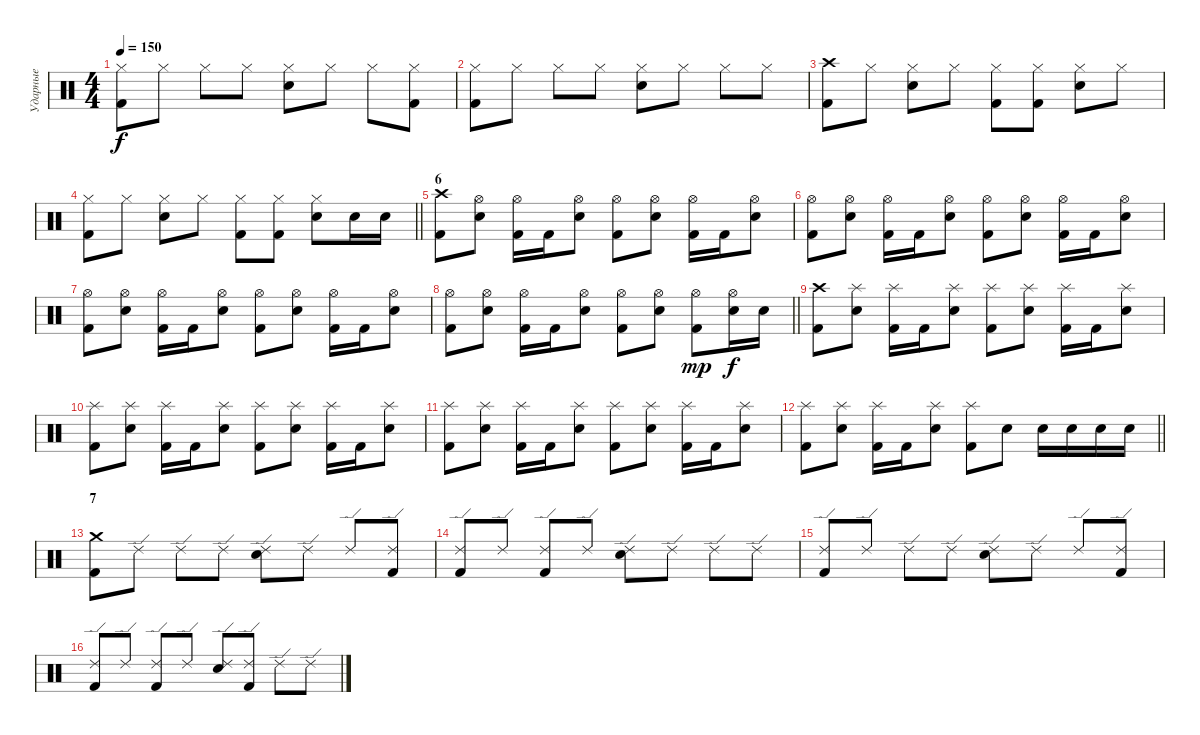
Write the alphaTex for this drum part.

\track ("Ударные" "Ударные") {instrument percussion}
\staff {score}
\articulation defaults
\ts (4 4)
\tempo 150
\clef neutral
\ks c
("Hi-Hat (closed)" "Kick (hit) 2").8{dy f} "Hi-Hat (closed)".8 "Hi-Hat (closed)".8 "Hi-Hat (closed)".8 ("Hi-Hat (closed)" "Electric Snare (hit)").8 "Hi-Hat (closed)".8 "Hi-Hat (closed)".8 ("Hi-Hat (closed)" "Kick (hit) 2").8 |
("Hi-Hat (closed)" "Kick (hit) 2").8 "Hi-Hat (closed)".8 "Hi-Hat (closed)".8 "Hi-Hat (closed)".8 ("Hi-Hat (closed)" "Electric Snare (hit)").8 "Hi-Hat (closed)".8 "Hi-Hat (closed)".8 "Hi-Hat (closed)".8 |
("Crash high (hit)" "Kick (hit) 2").8 "Hi-Hat (closed)".8 ("Hi-Hat (closed)" "Electric Snare (hit)").8 "Hi-Hat (closed)".8 ("Hi-Hat (closed)" "Kick (hit) 2").8 ("Hi-Hat (closed)" "Kick (hit) 2").8 ("Hi-Hat (closed)" "Electric Snare (hit)").8 "Hi-Hat (closed)".8 |
\barLineRight lightlight
("Hi-Hat (closed)" "Kick (hit) 2").8 "Hi-Hat (closed)".8 ("Hi-Hat (closed)" "Electric Snare (hit)").8 "Hi-Hat (closed)".8 ("Hi-Hat (closed)" "Kick (hit) 2").8 ("Hi-Hat (closed)" "Kick (hit) 2").8 ("Hi-Hat (closed)" "Electric Snare (hit)").8 "Electric Snare (hit)".16 "Electric Snare (hit)".16 |
\section ("" "6")
("Crash high (hit)" "Kick (hit) 2").8 ("Hi-Hat (open)" "Electric Snare (hit)").8 ("Hi-Hat (open)" "Kick (hit) 2").16 "Kick (hit) 2".16 ("Hi-Hat (open)" "Electric Snare (hit)").8 ("Hi-Hat (open)" "Kick (hit) 2").8 ("Hi-Hat (open)" "Electric Snare (hit)").8 ("Hi-Hat (open)" "Kick (hit) 2").16 "Kick (hit) 2".16 ("Hi-Hat (open)" "Electric Snare (hit)").8 |
("Hi-Hat (open)" "Kick (hit) 2").8 ("Hi-Hat (open)" "Electric Snare (hit)").8 ("Hi-Hat (open)" "Kick (hit) 2").16 "Kick (hit) 2".16 ("Hi-Hat (open)" "Electric Snare (hit)").8 ("Hi-Hat (open)" "Kick (hit) 2").8 ("Hi-Hat (open)" "Electric Snare (hit)").8 ("Hi-Hat (open)" "Kick (hit) 2").16 "Kick (hit) 2".16 ("Hi-Hat (open)" "Electric Snare (hit)").8 |
("Hi-Hat (open)" "Kick (hit) 2").8 ("Hi-Hat (open)" "Electric Snare (hit)").8 ("Hi-Hat (open)" "Kick (hit) 2").16 "Kick (hit) 2".16 ("Hi-Hat (open)" "Electric Snare (hit)").8 ("Hi-Hat (open)" "Kick (hit) 2").8 ("Hi-Hat (open)" "Electric Snare (hit)").8 ("Hi-Hat (open)" "Kick (hit) 2").16 "Kick (hit) 2".16 ("Hi-Hat (open)" "Electric Snare (hit)").8 |
\barLineRight lightlight
("Hi-Hat (open)" "Kick (hit) 2").8 ("Hi-Hat (open)" "Electric Snare (hit)").8 ("Hi-Hat (open)" "Kick (hit) 2").16 "Kick (hit) 2".16 ("Hi-Hat (open)" "Electric Snare (hit)").8 ("Hi-Hat (open)" "Kick (hit) 2").8 ("Hi-Hat (open)" "Electric Snare (hit)").8 ("Hi-Hat (open)" "Kick (hit) 2").8{dy mp} ("Hi-Hat (open)" "Electric Snare (hit)").16{dy f} "Electric Snare (hit)".16 |
("Crash high (hit)" "Kick (hit) 2").8 ("Splash (hit)" "Electric Snare (hit)").8 ("Splash (hit)" "Kick (hit) 2").16 "Kick (hit) 2".16 ("Splash (hit)" "Electric Snare (hit)").8 ("Splash (hit)" "Kick (hit) 2").8 ("Splash (hit)" "Electric Snare (hit)").8 ("Splash (hit)" "Kick (hit) 2").16 "Kick (hit) 2".16 ("Splash (hit)" "Electric Snare (hit)").8 |
("Splash (hit)" "Kick (hit) 2").8 ("Splash (hit)" "Electric Snare (hit)").8 ("Splash (hit)" "Kick (hit) 2").16 "Kick (hit) 2".16 ("Splash (hit)" "Electric Snare (hit)").8 ("Splash (hit)" "Kick (hit) 2").8 ("Splash (hit)" "Electric Snare (hit)").8 ("Splash (hit)" "Kick (hit) 2").16 "Kick (hit) 2".16 ("Splash (hit)" "Electric Snare (hit)").8 |
("Splash (hit)" "Kick (hit) 2").8 ("Splash (hit)" "Electric Snare (hit)").8 ("Splash (hit)" "Kick (hit) 2").16 "Kick (hit) 2".16 ("Splash (hit)" "Electric Snare (hit)").8 ("Splash (hit)" "Kick (hit) 2").8 ("Splash (hit)" "Electric Snare (hit)").8 ("Splash (hit)" "Kick (hit) 2").16 "Kick (hit) 2".16 ("Splash (hit)" "Electric Snare (hit)").8 |
\barLineRight lightlight
("Splash (hit)" "Kick (hit) 2").8 ("Splash (hit)" "Electric Snare (hit)").8 ("Splash (hit)" "Kick (hit) 2").16 "Kick (hit) 2".16 ("Splash (hit)" "Electric Snare (hit)").8 ("Splash (hit)" "Kick (hit) 2").8 "Electric Snare (hit)".8 "Electric Snare (hit)".16 "Electric Snare (hit)".16 "Electric Snare (hit)".16 "Electric Snare (hit)".16 |
\section ("" "7")
("Crash medium (hit)" "Kick (hit) 2").8 "Ride (edge) 2".8 "Ride (edge) 2".8 "Ride (edge) 2".8 ("Ride (edge) 2" "Electric Snare (hit)").8 "Ride (edge) 2".8 "Ride (edge) 2".8 ("Ride (edge) 2" "Kick (hit) 2").8 |
("Ride (edge) 2" "Kick (hit) 2").8 "Ride (edge) 2".8 ("Ride (edge) 2" "Kick (hit) 2").8 "Ride (edge) 2".8 ("Ride (edge) 2" "Electric Snare (hit)").8 "Ride (edge) 2".8 "Ride (edge) 2".8 "Ride (edge) 2".8 |
("Ride (edge) 2" "Kick (hit) 2").8 "Ride (edge) 2".8 "Ride (edge) 2".8 "Ride (edge) 2".8 ("Ride (edge) 2" "Electric Snare (hit)").8 "Ride (edge) 2".8 "Ride (edge) 2".8 ("Ride (edge) 2" "Kick (hit) 2").8 |
("Ride (edge) 2" "Kick (hit) 2").8 "Ride (edge) 2".8 ("Ride (edge) 2" "Kick (hit) 2").8 "Ride (edge) 2".8 ("Ride (edge) 2" "Electric Snare (hit)").8 ("Ride (edge) 2" "Kick (hit) 2").8 "Ride (edge) 2".8 "Ride (edge) 2".8
